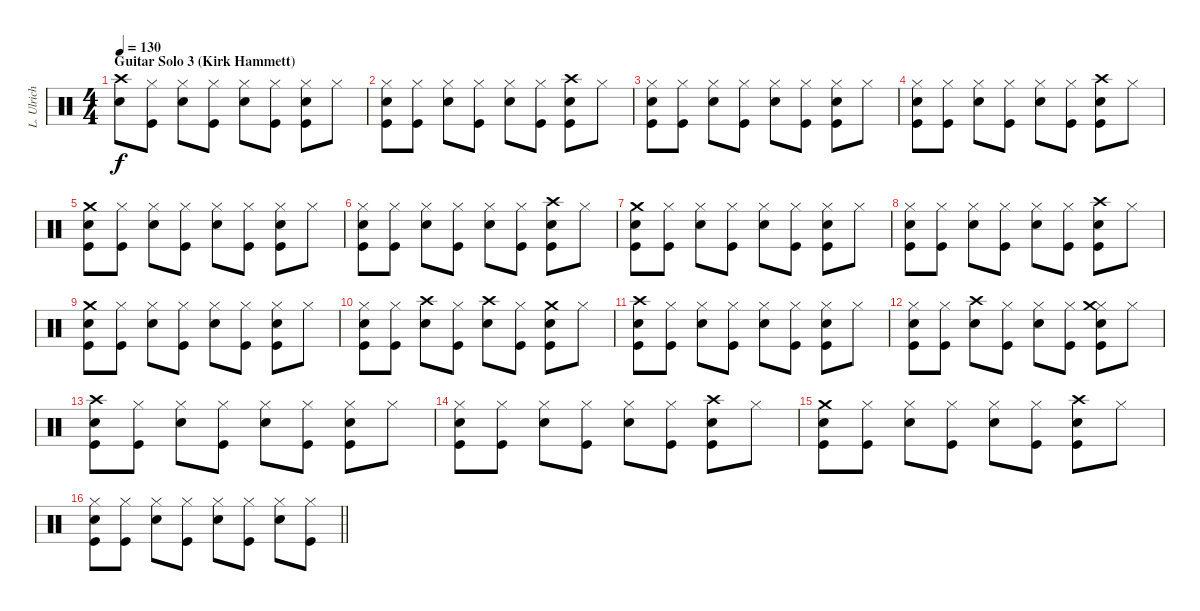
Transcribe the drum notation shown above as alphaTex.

\track ("L. Ulrich" "L. Ulrich") {instrument percussion}
\staff {score}
\articulation defaults
\ts (4 4)
\section ("" "Guitar Solo 3 (Kirk Hammett)")
\tempo 130
\clef neutral
\ks c
("Crash high (hit)" "Snare (hit) 2").8{dy f} ("Hi-Hat (closed)" "Kick (hit)").8 ("Hi-Hat (closed)" "Snare (hit) 2").8 ("Hi-Hat (closed)" "Kick (hit)").8 ("Hi-Hat (closed)" "Snare (hit) 2").8 ("Hi-Hat (closed)" "Kick (hit)").8 ("Hi-Hat (closed)" "Snare (hit) 2" "Kick (hit)").8 "Hi-Hat (closed)".8 |
("Hi-Hat (closed)" "Snare (hit) 2" "Kick (hit)").8 ("Hi-Hat (closed)" "Kick (hit)").8 ("Hi-Hat (closed)" "Snare (hit) 2").8 ("Hi-Hat (closed)" "Kick (hit)").8 ("Hi-Hat (closed)" "Snare (hit) 2").8 ("Hi-Hat (closed)" "Kick (hit)").8 ("Crash high (hit)" "Snare (hit) 2" "Kick (hit)").8 "Hi-Hat (closed)".8 |
("Hi-Hat (closed)" "Snare (hit) 2" "Kick (hit)").8 ("Hi-Hat (closed)" "Kick (hit)").8 ("Hi-Hat (closed)" "Snare (hit) 2").8 ("Hi-Hat (closed)" "Kick (hit)").8 ("Hi-Hat (closed)" "Snare (hit) 2").8 ("Hi-Hat (closed)" "Kick (hit)").8 ("Hi-Hat (closed)" "Snare (hit) 2" "Kick (hit)").8 "Hi-Hat (closed)".8 |
("Hi-Hat (closed)" "Snare (hit) 2" "Kick (hit)").8 ("Hi-Hat (closed)" "Kick (hit)").8 ("Hi-Hat (closed)" "Snare (hit) 2").8 ("Hi-Hat (closed)" "Kick (hit)").8 ("Hi-Hat (closed)" "Snare (hit) 2").8 ("Hi-Hat (closed)" "Kick (hit)").8 ("Crash high (hit)" "Snare (hit) 2" "Kick (hit)").8 "Hi-Hat (closed)".8 |
("Crash medium (hit)" "Snare (hit) 2" "Kick (hit)").8 ("Hi-Hat (closed)" "Kick (hit)").8 ("Hi-Hat (closed)" "Snare (hit) 2").8 ("Hi-Hat (closed)" "Kick (hit)").8 ("Hi-Hat (closed)" "Snare (hit) 2").8 ("Hi-Hat (closed)" "Kick (hit)").8 ("Hi-Hat (closed)" "Snare (hit) 2" "Kick (hit)").8 "Hi-Hat (closed)".8 |
("Hi-Hat (closed)" "Snare (hit) 2" "Kick (hit)").8 ("Hi-Hat (closed)" "Kick (hit)").8 ("Hi-Hat (closed)" "Snare (hit) 2").8 ("Hi-Hat (closed)" "Kick (hit)").8 ("Hi-Hat (closed)" "Snare (hit) 2").8 ("Hi-Hat (closed)" "Kick (hit)").8 ("Crash high (hit)" "Snare (hit) 2" "Kick (hit)").8 "Hi-Hat (closed)".8 |
("Crash medium (hit)" "Snare (hit) 2" "Kick (hit)").8 ("Hi-Hat (closed)" "Kick (hit)").8 ("Hi-Hat (closed)" "Snare (hit) 2").8 ("Hi-Hat (closed)" "Kick (hit)").8 ("Hi-Hat (closed)" "Snare (hit) 2").8 ("Hi-Hat (closed)" "Kick (hit)").8 ("Hi-Hat (closed)" "Snare (hit) 2" "Kick (hit)").8 "Hi-Hat (closed)".8 |
("Hi-Hat (closed)" "Snare (hit) 2" "Kick (hit)").8 ("Hi-Hat (closed)" "Kick (hit)").8 ("Hi-Hat (closed)" "Snare (hit) 2").8 ("Hi-Hat (closed)" "Kick (hit)").8 ("Hi-Hat (closed)" "Snare (hit) 2").8 ("Hi-Hat (closed)" "Kick (hit)").8 ("Crash high (hit)" "Snare (hit) 2" "Kick (hit)").8 "Hi-Hat (closed)".8 |
("Crash medium (hit)" "Snare (hit) 2" "Kick (hit)").8 ("Hi-Hat (closed)" "Kick (hit)").8 ("Hi-Hat (closed)" "Snare (hit) 2").8 ("Hi-Hat (closed)" "Kick (hit)").8 ("Hi-Hat (closed)" "Snare (hit) 2").8 ("Hi-Hat (closed)" "Kick (hit)").8 ("Hi-Hat (closed)" "Snare (hit) 2" "Kick (hit)").8 "Hi-Hat (closed)".8 |
("Hi-Hat (closed)" "Snare (hit) 2" "Kick (hit)").8 ("Hi-Hat (closed)" "Kick (hit)").8 ("Crash high (hit)" "Snare (hit) 2").8 ("Hi-Hat (closed)" "Kick (hit)").8 ("Crash high (hit)" "Snare (hit) 2").8 ("Hi-Hat (closed)" "Kick (hit)").8 ("Crash medium (hit)" "Snare (hit) 2" "Kick (hit)").8 "Hi-Hat (closed)".8 |
("Crash high (hit)" "Snare (hit) 2" "Kick (hit)").8 ("Hi-Hat (closed)" "Kick (hit)").8 ("Hi-Hat (closed)" "Snare (hit) 2").8 ("Hi-Hat (closed)" "Kick (hit)").8 ("Hi-Hat (closed)" "Snare (hit) 2").8 ("Hi-Hat (closed)" "Kick (hit)").8 ("Hi-Hat (closed)" "Snare (hit) 2" "Kick (hit)").8 "Hi-Hat (closed)".8 |
("Hi-Hat (closed)" "Snare (hit) 2" "Kick (hit)").8 ("Hi-Hat (closed)" "Kick (hit)").8 ("Crash high (hit)" "Snare (hit) 2").8 ("Hi-Hat (closed)" "Kick (hit)").8 ("Hi-Hat (closed)" "Snare (hit) 2").8 ("Hi-Hat (closed)" "Kick (hit)").8 ("Hi-Hat (closed)" "Crash medium (hit)" "Snare (hit) 2" "Kick (hit)").8 "Hi-Hat (closed)".8 |
("Crash high (hit)" "Snare (hit) 2" "Kick (hit)").8 ("Hi-Hat (closed)" "Kick (hit)").8 ("Hi-Hat (closed)" "Snare (hit) 2").8 ("Hi-Hat (closed)" "Kick (hit)").8 ("Hi-Hat (closed)" "Snare (hit) 2").8 ("Hi-Hat (closed)" "Kick (hit)").8 ("Hi-Hat (closed)" "Snare (hit) 2" "Kick (hit)").8 "Hi-Hat (closed)".8 |
("Hi-Hat (closed)" "Snare (hit) 2" "Kick (hit)").8 ("Hi-Hat (closed)" "Kick (hit)").8 ("Hi-Hat (closed)" "Snare (hit) 2").8 ("Hi-Hat (closed)" "Kick (hit)").8 ("Hi-Hat (closed)" "Snare (hit) 2").8 ("Hi-Hat (closed)" "Kick (hit)").8 ("Crash high (hit)" "Snare (hit) 2" "Kick (hit)").8 "Hi-Hat (closed)".8 |
("Crash medium (hit)" "Snare (hit) 2" "Kick (hit)").8 ("Hi-Hat (closed)" "Kick (hit)").8 ("Hi-Hat (closed)" "Snare (hit) 2").8 ("Hi-Hat (closed)" "Kick (hit)").8 ("Hi-Hat (closed)" "Snare (hit) 2").8 ("Hi-Hat (closed)" "Kick (hit)").8 ("Crash high (hit)" "Snare (hit) 2" "Kick (hit)").8 "Hi-Hat (closed)".8 |
\barLineRight lightlight
("Hi-Hat (closed)" "Snare (hit) 2" "Kick (hit)").8 ("Hi-Hat (closed)" "Kick (hit)").8 ("Hi-Hat (closed)" "Snare (hit) 2").8 ("Hi-Hat (closed)" "Kick (hit)").8 ("Hi-Hat (closed)" "Snare (hit) 2").8 ("Hi-Hat (closed)" "Kick (hit)").8 ("Hi-Hat (closed)" "Snare (hit) 2").8 ("Hi-Hat (closed)" "Kick (hit)").8
